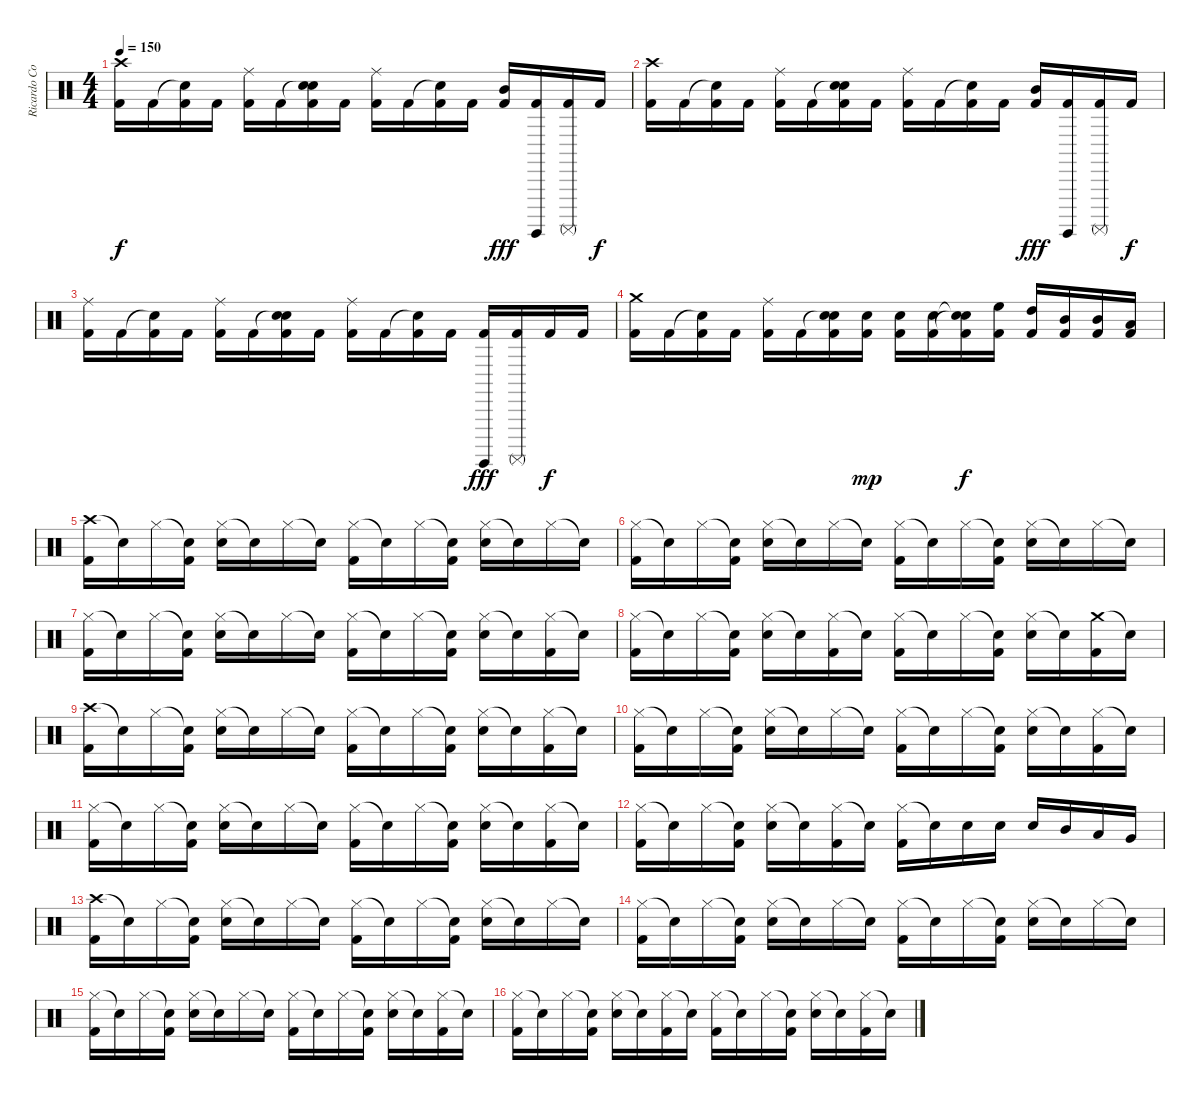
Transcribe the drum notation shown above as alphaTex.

\track ("Ricardo Confessori" "Ricardo Co") {instrument percussion}
\staff {score}
\articulation defaults
\ts (4 4)
\tempo 150
\clef neutral
\ks c
("Crash high (hit)" "Kick (hit) 2").16{dy f} "Kick (hit) 2".16 ("Snare (hit)"{t} "Kick (hit) 2").16 "Kick (hit) 2".16 ("Ride (middle)" "Kick (hit) 2").16 "Kick (hit) 2".16 ("Snare (hit)"{t} "Electric Snare (hit)" "Kick (hit) 2").16 "Kick (hit) 2".16 ("Ride (middle)" "Kick (hit) 2").16 "Kick (hit) 2".16 ("Snare (hit)"{t} "Kick (hit) 2").16 "Kick (hit) 2".16 ("Mid Tom (hit)" "Kick (hit) 2").16{dy fff} ("Surdo (hit)" "Kick (hit) 2").16 ("Surdo (mute)" "Kick (hit) 2").16 "Kick (hit) 2".16{dy f} |
("Crash high (hit)" "Kick (hit) 2").16 "Kick (hit) 2".16 ("Snare (hit)"{t} "Kick (hit) 2").16 "Kick (hit) 2".16 ("Ride (middle)" "Kick (hit) 2").16 "Kick (hit) 2".16 ("Snare (hit)"{t} "Electric Snare (hit)" "Kick (hit) 2").16 "Kick (hit) 2".16 ("Ride (middle)" "Kick (hit) 2").16 "Kick (hit) 2".16 ("Snare (hit)"{t} "Kick (hit) 2").16 "Kick (hit) 2".16 ("Mid Tom (hit)" "Kick (hit) 2").16{dy fff} ("Surdo (hit)" "Kick (hit) 2").16 ("Surdo (mute)" "Kick (hit) 2").16 "Kick (hit) 2".16{dy f} |
("Ride (middle)" "Kick (hit) 2").16 "Kick (hit) 2".16 ("Snare (hit)"{t} "Kick (hit) 2").16 "Kick (hit) 2".16 ("Ride (middle)" "Kick (hit) 2").16 "Kick (hit) 2".16 ("Snare (hit)"{t} "Electric Snare (hit)" "Kick (hit) 2").16 "Kick (hit) 2".16 ("Ride (middle)" "Kick (hit) 2").16 "Kick (hit) 2".16 ("Snare (hit)"{t} "Kick (hit) 2").16 "Kick (hit) 2".16 ("Surdo (hit)" "Kick (hit) 2").16{dy fff} ("Surdo (mute)" "Kick (hit) 2").16 "Kick (hit) 2".16{dy f} "Kick (hit) 2".16 |
("Crash medium (hit)" "Kick (hit) 2").16 "Kick (hit) 2".16 ("Snare (hit)"{t} "Kick (hit) 2").16 "Kick (hit) 2".16 ("Ride (middle)" "Kick (hit) 2").16 "Kick (hit) 2".16 ("Snare (hit)"{t} "Electric Snare (hit)" "Kick (hit) 2").16 ("Electric Snare (hit)" "Kick (hit) 2").16{dy mp} ("Electric Snare (hit)" "Kick (hit) 2").16 ("Electric Snare (hit)" "Kick (hit) 2").16 ("Snare (hit)"{t} "Electric Snare (hit)"{t} "Kick (hit) 2").16{dy f} ("High Floor Tom (hit)" "Kick (hit) 2").16 ("High Tom (hit)" "Kick (hit) 2").16 ("Mid Tom (hit)" "Kick (hit) 2").16 ("Mid Tom (hit)" "Kick (hit) 2").16 ("Low Tom (hit)" "Kick (hit) 2").16 |
("Crash high (hit)" "Kick (hit) 2").16 "Snare (hit)"{t}.16 "Hi-Hat (closed)".16 ("Snare (hit)"{t} "Kick (hit) 2").16 ("Hi-Hat (closed)" "Electric Snare (hit)").16 "Snare (hit)"{t}.16 "Hi-Hat (closed)".16 "Snare (hit)"{t}.16 ("Hi-Hat (closed)" "Kick (hit) 2").16 "Snare (hit)"{t}.16 "Hi-Hat (closed)".16 ("Snare (hit)"{t} "Kick (hit) 2").16 ("Hi-Hat (closed)" "Electric Snare (hit)").16 "Snare (hit)"{t}.16 "Hi-Hat (closed)".16 "Snare (hit)"{t}.16 |
("Hi-Hat (closed)" "Kick (hit) 2").16 "Snare (hit)"{t}.16 "Hi-Hat (closed)".16 ("Snare (hit)"{t} "Kick (hit) 2").16 ("Hi-Hat (closed)" "Electric Snare (hit)").16 "Snare (hit)"{t}.16 "Hi-Hat (closed)".16 "Snare (hit)"{t}.16 ("Hi-Hat (closed)" "Kick (hit) 2").16 "Snare (hit)"{t}.16 "Hi-Hat (closed)".16 ("Snare (hit)"{t} "Kick (hit) 2").16 ("Hi-Hat (closed)" "Electric Snare (hit)").16 "Snare (hit)"{t}.16 "Hi-Hat (closed)".16 "Snare (hit)"{t}.16 |
("Hi-Hat (closed)" "Kick (hit) 2").16 "Snare (hit)"{t}.16 "Hi-Hat (closed)".16 ("Snare (hit)"{t} "Kick (hit) 2").16 ("Hi-Hat (closed)" "Electric Snare (hit)").16 "Snare (hit)"{t}.16 "Hi-Hat (closed)".16 "Snare (hit)"{t}.16 ("Hi-Hat (closed)" "Kick (hit) 2").16 "Snare (hit)"{t}.16 "Hi-Hat (closed)".16 ("Snare (hit)"{t} "Kick (hit) 2").16 ("Hi-Hat (closed)" "Electric Snare (hit)").16 "Snare (hit)"{t}.16 ("Hi-Hat (closed)" "Kick (hit) 2").16 "Snare (hit)"{t}.16 |
("Hi-Hat (closed)" "Kick (hit) 2").16 "Snare (hit)"{t}.16 "Hi-Hat (closed)".16 ("Snare (hit)"{t} "Kick (hit) 2").16 ("Hi-Hat (closed)" "Electric Snare (hit)").16 "Snare (hit)"{t}.16 ("Hi-Hat (closed)" "Kick (hit) 2").16 "Snare (hit)"{t}.16 ("Hi-Hat (closed)" "Kick (hit) 2").16 "Snare (hit)"{t}.16 "Hi-Hat (closed)".16 ("Snare (hit)"{t} "Kick (hit) 2").16 ("Hi-Hat (closed)" "Electric Snare (hit)").16 "Snare (hit)"{t}.16 ("Crash medium (hit)" "Kick (hit) 2").16 "Snare (hit)"{t}.16 |
("Crash high (hit)" "Kick (hit) 2").16 "Snare (hit)"{t}.16 "Hi-Hat (closed)".16 ("Snare (hit)"{t} "Kick (hit) 2").16 ("Hi-Hat (closed)" "Electric Snare (hit)").16 "Snare (hit)"{t}.16 "Hi-Hat (closed)".16 "Snare (hit)"{t}.16 ("Hi-Hat (closed)" "Kick (hit) 2").16 "Snare (hit)"{t}.16 "Hi-Hat (closed)".16 ("Snare (hit)"{t} "Kick (hit) 2").16 ("Hi-Hat (closed)" "Electric Snare (hit)").16 "Snare (hit)"{t}.16 ("Hi-Hat (closed)" "Kick (hit) 2").16 "Snare (hit)"{t}.16 |
("Hi-Hat (closed)" "Kick (hit) 2").16 "Snare (hit)"{t}.16 "Hi-Hat (closed)".16 ("Snare (hit)"{t} "Kick (hit) 2").16 ("Hi-Hat (closed)" "Electric Snare (hit)").16 "Snare (hit)"{t}.16 "Hi-Hat (closed)".16 "Snare (hit)"{t}.16 ("Hi-Hat (closed)" "Kick (hit) 2").16 "Snare (hit)"{t}.16 "Hi-Hat (closed)".16 ("Snare (hit)"{t} "Kick (hit) 2").16 ("Hi-Hat (closed)" "Electric Snare (hit)").16 "Snare (hit)"{t}.16 ("Hi-Hat (closed)" "Kick (hit) 2").16 "Snare (hit)"{t}.16 |
("Hi-Hat (closed)" "Kick (hit) 2").16 "Snare (hit)"{t}.16 "Hi-Hat (closed)".16 ("Snare (hit)"{t} "Kick (hit) 2").16 ("Hi-Hat (closed)" "Electric Snare (hit)").16 "Snare (hit)"{t}.16 "Hi-Hat (closed)".16 "Snare (hit)"{t}.16 ("Hi-Hat (closed)" "Kick (hit) 2").16 "Snare (hit)"{t}.16 "Hi-Hat (closed)".16 ("Snare (hit)"{t} "Kick (hit) 2").16 ("Hi-Hat (closed)" "Electric Snare (hit)").16 "Snare (hit)"{t}.16 ("Hi-Hat (closed)" "Kick (hit) 2").16 "Snare (hit)"{t}.16 |
("Hi-Hat (closed)" "Kick (hit) 2").16 "Snare (hit)"{t}.16 "Hi-Hat (closed)".16 ("Snare (hit)"{t} "Kick (hit) 2").16 ("Hi-Hat (closed)" "Electric Snare (hit)").16 "Snare (hit)"{t}.16 ("Hi-Hat (closed)" "Kick (hit) 2").16 "Snare (hit)"{t}.16 ("Hi-Hat (closed)" "Kick (hit) 2").16 "Snare (hit)"{t}.16 "Electric Snare (hit)".16 "Electric Snare (hit)".16 "Electric Snare (hit)".16 "Mid Tom (hit)".16 "Low Tom (hit)".16 "Very Low Tom (hit)".16 |
("Crash high (hit)" "Kick (hit) 2").16 "Snare (hit)"{t}.16 "Hi-Hat (closed)".16 ("Snare (hit)"{t} "Kick (hit) 2").16 ("Hi-Hat (closed)" "Electric Snare (hit)").16 "Snare (hit)"{t}.16 "Hi-Hat (closed)".16 "Snare (hit)"{t}.16 ("Hi-Hat (closed)" "Kick (hit) 2").16 "Snare (hit)"{t}.16 "Hi-Hat (closed)".16 ("Snare (hit)"{t} "Kick (hit) 2").16 ("Hi-Hat (closed)" "Electric Snare (hit)").16 "Snare (hit)"{t}.16 "Hi-Hat (closed)".16 "Snare (hit)"{t}.16 |
("Hi-Hat (closed)" "Kick (hit) 2").16 "Snare (hit)"{t}.16 "Hi-Hat (closed)".16 ("Snare (hit)"{t} "Kick (hit) 2").16 ("Hi-Hat (closed)" "Electric Snare (hit)").16 "Snare (hit)"{t}.16 "Hi-Hat (closed)".16 "Snare (hit)"{t}.16 ("Hi-Hat (closed)" "Kick (hit) 2").16 "Snare (hit)"{t}.16 "Hi-Hat (closed)".16 ("Snare (hit)"{t} "Kick (hit) 2").16 ("Hi-Hat (closed)" "Electric Snare (hit)").16 "Snare (hit)"{t}.16 "Hi-Hat (closed)".16 "Snare (hit)"{t}.16 |
("Hi-Hat (closed)" "Kick (hit) 2").16 "Snare (hit)"{t}.16 "Hi-Hat (closed)".16 ("Snare (hit)"{t} "Kick (hit) 2").16 ("Hi-Hat (closed)" "Electric Snare (hit)").16 "Snare (hit)"{t}.16 "Hi-Hat (closed)".16 "Snare (hit)"{t}.16 ("Hi-Hat (closed)" "Kick (hit) 2").16 "Snare (hit)"{t}.16 "Hi-Hat (closed)".16 ("Snare (hit)"{t} "Kick (hit) 2").16 ("Hi-Hat (closed)" "Electric Snare (hit)").16 "Snare (hit)"{t}.16 ("Hi-Hat (closed)" "Kick (hit) 2").16 "Snare (hit)"{t}.16 |
("Hi-Hat (closed)" "Kick (hit) 2").16 "Snare (hit)"{t}.16 "Hi-Hat (closed)".16 ("Snare (hit)"{t} "Kick (hit) 2").16 ("Hi-Hat (closed)" "Electric Snare (hit)").16 "Snare (hit)"{t}.16 ("Hi-Hat (closed)" "Kick (hit) 2").16 "Snare (hit)"{t}.16 ("Hi-Hat (closed)" "Kick (hit) 2").16 "Snare (hit)"{t}.16 "Hi-Hat (closed)".16 ("Snare (hit)"{t} "Kick (hit) 2").16 ("Hi-Hat (closed)" "Electric Snare (hit)").16 "Snare (hit)"{t}.16 ("Hi-Hat (closed)" "Kick (hit) 2").16 "Snare (hit)"{t}.16
